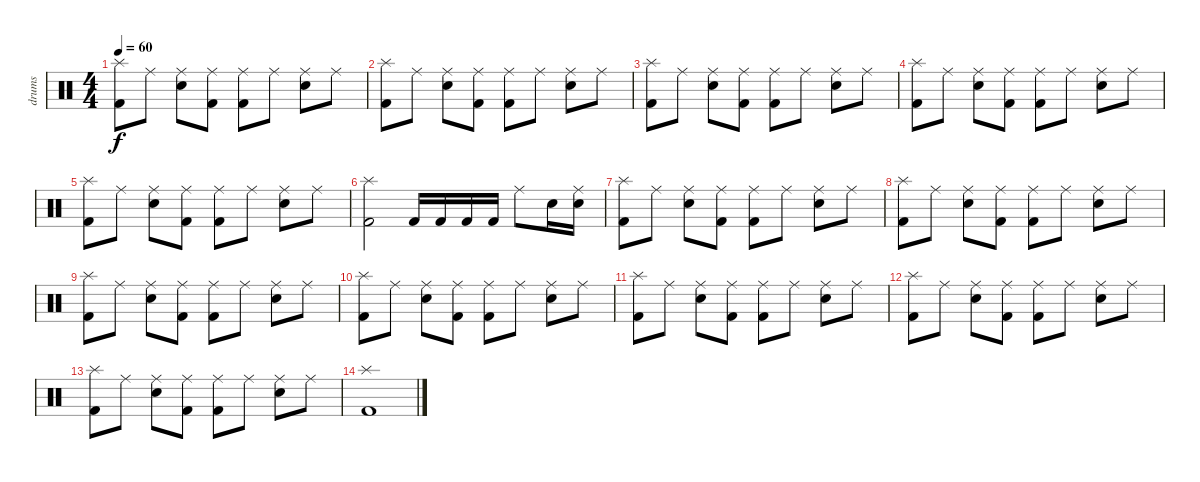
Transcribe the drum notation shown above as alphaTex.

\track ("drums" "drums") {instrument percussion}
\staff {score}
\articulation defaults
\ts (4 4)
\tempo 60
\clef neutral
\ks c
("Splash (hit)" "Kick (hit) 2").8{dy f} "Ride (middle)".8 ("Ride (middle)" "Electric Snare (hit)").8 ("Ride (middle)" "Kick (hit) 2").8 ("Ride (middle)" "Kick (hit) 2").8 "Ride (middle)".8 ("Ride (middle)" "Electric Snare (hit)").8 "Ride (middle)".8 |
("Splash (hit)" "Kick (hit) 2").8 "Ride (middle)".8 ("Ride (middle)" "Electric Snare (hit)").8 ("Ride (middle)" "Kick (hit) 2").8 ("Ride (middle)" "Kick (hit) 2").8 "Ride (middle)".8 ("Ride (middle)" "Electric Snare (hit)").8 "Ride (middle)".8 |
("Splash (hit)" "Kick (hit) 2").8 "Ride (middle)".8 ("Ride (middle)" "Electric Snare (hit)").8 ("Ride (middle)" "Kick (hit) 2").8 ("Ride (middle)" "Kick (hit) 2").8 "Ride (middle)".8 ("Ride (middle)" "Electric Snare (hit)").8 "Ride (middle)".8 |
("Splash (hit)" "Kick (hit) 2").8 "Ride (middle)".8 ("Ride (middle)" "Electric Snare (hit)").8 ("Ride (middle)" "Kick (hit) 2").8 ("Ride (middle)" "Kick (hit) 2").8 "Ride (middle)".8 ("Ride (middle)" "Electric Snare (hit)").8 "Ride (middle)".8 |
("Splash (hit)" "Kick (hit) 2").8 "Ride (middle)".8 ("Ride (middle)" "Electric Snare (hit)").8 ("Ride (middle)" "Kick (hit) 2").8 ("Ride (middle)" "Kick (hit) 2").8 "Ride (middle)".8 ("Ride (middle)" "Electric Snare (hit)").8 "Ride (middle)".8 |
("Splash (hit)" "Kick (hit) 2").2 "Kick (hit) 2".16 "Kick (hit) 2".16 "Kick (hit) 2".16 "Kick (hit) 2".16 "Ride (middle)".8 "Electric Snare (hit)".16 ("Electric Snare (hit)" "Ride (middle)").16 |
("Splash (hit)" "Kick (hit) 2").8 "Ride (middle)".8 ("Ride (middle)" "Electric Snare (hit)").8 ("Ride (middle)" "Kick (hit) 2").8 ("Ride (middle)" "Kick (hit) 2").8 "Ride (middle)".8 ("Ride (middle)" "Electric Snare (hit)").8 "Ride (middle)".8 |
("Splash (hit)" "Kick (hit) 2").8 "Ride (middle)".8 ("Ride (middle)" "Electric Snare (hit)").8 ("Ride (middle)" "Kick (hit) 2").8 ("Ride (middle)" "Kick (hit) 2").8 "Ride (middle)".8 ("Ride (middle)" "Electric Snare (hit)").8 "Ride (middle)".8 |
("Splash (hit)" "Kick (hit) 2").8 "Ride (middle)".8 ("Ride (middle)" "Electric Snare (hit)").8 ("Ride (middle)" "Kick (hit) 2").8 ("Ride (middle)" "Kick (hit) 2").8 "Ride (middle)".8 ("Ride (middle)" "Electric Snare (hit)").8 "Ride (middle)".8 |
("Splash (hit)" "Kick (hit) 2").8 "Ride (middle)".8 ("Ride (middle)" "Electric Snare (hit)").8 ("Ride (middle)" "Kick (hit) 2").8 ("Ride (middle)" "Kick (hit) 2").8 "Ride (middle)".8 ("Ride (middle)" "Electric Snare (hit)").8 "Ride (middle)".8 |
("Splash (hit)" "Kick (hit) 2").8 "Ride (middle)".8 ("Ride (middle)" "Electric Snare (hit)").8 ("Ride (middle)" "Kick (hit) 2").8 ("Ride (middle)" "Kick (hit) 2").8 "Ride (middle)".8 ("Ride (middle)" "Electric Snare (hit)").8 "Ride (middle)".8 |
("Splash (hit)" "Kick (hit) 2").8 "Ride (middle)".8 ("Ride (middle)" "Electric Snare (hit)").8 ("Ride (middle)" "Kick (hit) 2").8 ("Ride (middle)" "Kick (hit) 2").8 "Ride (middle)".8 ("Ride (middle)" "Electric Snare (hit)").8 "Ride (middle)".8 |
("Splash (hit)" "Kick (hit) 2").8 "Ride (middle)".8 ("Ride (middle)" "Electric Snare (hit)").8 ("Ride (middle)" "Kick (hit) 2").8 ("Ride (middle)" "Kick (hit) 2").8 "Ride (middle)".8 ("Ride (middle)" "Electric Snare (hit)").8 "Ride (middle)".8 |
("Splash (hit)" "Kick (hit) 2").1
